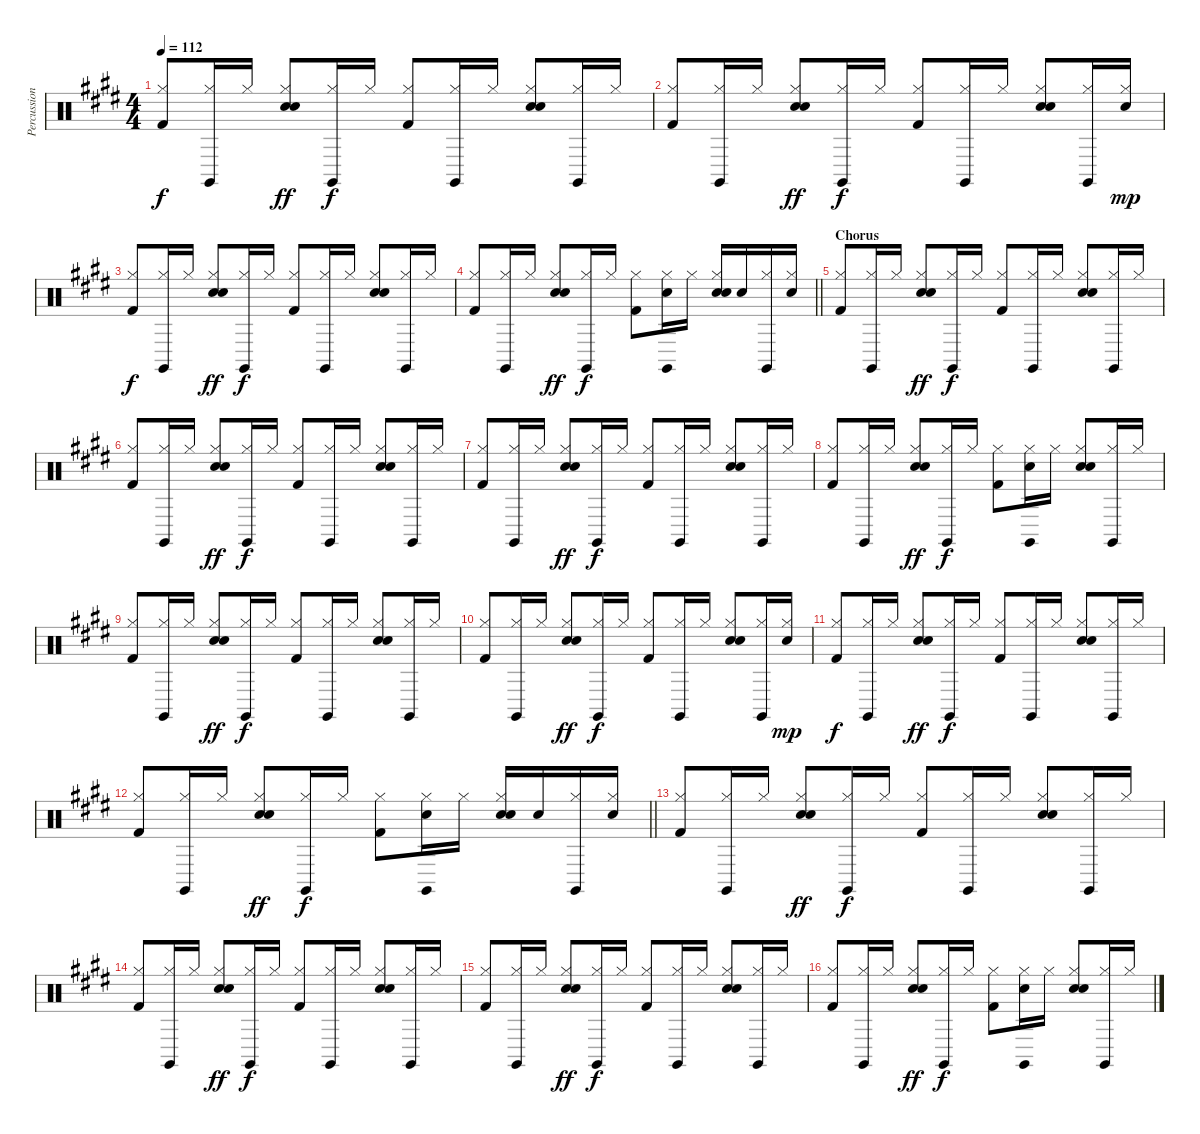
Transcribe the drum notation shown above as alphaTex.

\track ("Percussion" "Percussion") {instrument percussion}
\staff {score}
\articulation defaults
\ts (4 4)
\tempo 112
\clef neutral
\ks e
("Hi-Hat (closed)" "Kick (hit) 2").8{dy f} ("Claves (hit)" "Hi-Hat (closed)").16 "Hi-Hat (closed)".16 ("Hand Clap (hit)" "Hi-Hat (closed)" "Snare (hit) 2").8{dy ff} ("Claves (hit)" "Hi-Hat (closed)").16{dy f} "Hi-Hat (closed)".16 ("Hi-Hat (closed)" "Kick (hit) 2").8 ("Claves (hit)" "Hi-Hat (closed)").16 "Hi-Hat (closed)".16 ("Hand Clap (hit)" "Hi-Hat (closed)" "Snare (hit) 2").8 ("Claves (hit)" "Hi-Hat (closed)").16 "Hi-Hat (closed)".16 |
("Hi-Hat (closed)" "Kick (hit) 2").8 ("Claves (hit)" "Hi-Hat (closed)").16 "Hi-Hat (closed)".16 ("Hand Clap (hit)" "Hi-Hat (closed)" "Snare (hit) 2").8{dy ff} ("Claves (hit)" "Hi-Hat (closed)").16{dy f} "Hi-Hat (closed)".16 ("Hi-Hat (closed)" "Kick (hit) 2").8 ("Claves (hit)" "Hi-Hat (closed)").16 "Hi-Hat (closed)".16 ("Hand Clap (hit)" "Hi-Hat (closed)" "Snare (hit) 2").8 ("Claves (hit)" "Hi-Hat (closed)").16 ("Electric Snare (hit)" "Hi-Hat (closed)").16{dy mp} |
("Hi-Hat (closed)" "Kick (hit) 2").8{dy f} ("Claves (hit)" "Hi-Hat (closed)").16 "Hi-Hat (closed)".16 ("Hand Clap (hit)" "Hi-Hat (closed)" "Snare (hit) 2").8{dy ff} ("Claves (hit)" "Hi-Hat (closed)").16{dy f} "Hi-Hat (closed)".16 ("Hi-Hat (closed)" "Kick (hit) 2").8 ("Claves (hit)" "Hi-Hat (closed)").16 "Hi-Hat (closed)".16 ("Hand Clap (hit)" "Hi-Hat (closed)" "Snare (hit) 2").8 ("Claves (hit)" "Hi-Hat (closed)").16 "Hi-Hat (closed)".16 |
\barLineRight lightlight
("Hi-Hat (closed)" "Kick (hit) 2").8 ("Claves (hit)" "Hi-Hat (closed)").16 "Hi-Hat (closed)".16 ("Hand Clap (hit)" "Hi-Hat (closed)" "Snare (hit) 2").8{dy ff} ("Claves (hit)" "Hi-Hat (closed)").16{dy f} "Hi-Hat (closed)".16 ("Hi-Hat (closed)" "Kick (hit) 2").8 ("Claves (hit)" "Hi-Hat (closed)" "Snare (hit) 2").16 "Hi-Hat (closed)".16 ("Hand Clap (hit)" "Hi-Hat (closed)" "Snare (hit) 2").16 "Snare (hit) 2".16 ("Claves (hit)" "Hi-Hat (closed)").16 ("Hi-Hat (closed)" "Snare (hit) 2").16 |
\section ("" "Chorus")
("Hi-Hat (closed)" "Kick (hit) 2").8 ("Claves (hit)" "Hi-Hat (closed)").16 "Hi-Hat (closed)".16 ("Hand Clap (hit)" "Hi-Hat (closed)" "Snare (hit) 2").8{dy ff} ("Claves (hit)" "Hi-Hat (closed)").16{dy f} "Hi-Hat (closed)".16 ("Hi-Hat (closed)" "Kick (hit) 2").8 ("Claves (hit)" "Hi-Hat (closed)").16 "Hi-Hat (closed)".16 ("Hand Clap (hit)" "Hi-Hat (closed)" "Snare (hit) 2").8 ("Claves (hit)" "Hi-Hat (closed)").16 "Hi-Hat (closed)".16 |
("Hi-Hat (closed)" "Kick (hit) 2").8 ("Claves (hit)" "Hi-Hat (closed)").16 "Hi-Hat (closed)".16 ("Hand Clap (hit)" "Hi-Hat (closed)" "Snare (hit) 2").8{dy ff} ("Claves (hit)" "Hi-Hat (closed)").16{dy f} "Hi-Hat (closed)".16 ("Hi-Hat (closed)" "Kick (hit) 2").8 ("Claves (hit)" "Hi-Hat (closed)").16 "Hi-Hat (closed)".16 ("Hand Clap (hit)" "Hi-Hat (closed)" "Snare (hit) 2").8 ("Claves (hit)" "Hi-Hat (closed)").16 "Hi-Hat (closed)".16 |
("Hi-Hat (closed)" "Kick (hit) 2").8 ("Claves (hit)" "Hi-Hat (closed)").16 "Hi-Hat (closed)".16 ("Hand Clap (hit)" "Hi-Hat (closed)" "Snare (hit) 2").8{dy ff} ("Claves (hit)" "Hi-Hat (closed)").16{dy f} "Hi-Hat (closed)".16 ("Hi-Hat (closed)" "Kick (hit) 2").8 ("Claves (hit)" "Hi-Hat (closed)").16 "Hi-Hat (closed)".16 ("Hand Clap (hit)" "Hi-Hat (closed)" "Snare (hit) 2").8 ("Claves (hit)" "Hi-Hat (closed)").16 "Hi-Hat (closed)".16 |
("Hi-Hat (closed)" "Kick (hit) 2").8 ("Claves (hit)" "Hi-Hat (closed)").16 "Hi-Hat (closed)".16 ("Hand Clap (hit)" "Hi-Hat (closed)" "Snare (hit) 2").8{dy ff} ("Claves (hit)" "Hi-Hat (closed)").16{dy f} "Hi-Hat (closed)".16 ("Hi-Hat (closed)" "Kick (hit) 2").8 ("Claves (hit)" "Hand Clap (hit)" "Hi-Hat (closed)").16 "Hi-Hat (closed)".16 ("Hand Clap (hit)" "Hi-Hat (closed)" "Snare (hit) 2").8 ("Claves (hit)" "Hi-Hat (closed)").16 "Hi-Hat (closed)".16 |
("Hi-Hat (closed)" "Kick (hit) 2").8 ("Claves (hit)" "Hi-Hat (closed)").16 "Hi-Hat (closed)".16 ("Hand Clap (hit)" "Hi-Hat (closed)" "Snare (hit) 2").8{dy ff} ("Claves (hit)" "Hi-Hat (closed)").16{dy f} "Hi-Hat (closed)".16 ("Hi-Hat (closed)" "Kick (hit) 2").8 ("Claves (hit)" "Hi-Hat (closed)").16 "Hi-Hat (closed)".16 ("Hand Clap (hit)" "Hi-Hat (closed)" "Snare (hit) 2").8 ("Claves (hit)" "Hi-Hat (closed)").16 "Hi-Hat (closed)".16 |
("Hi-Hat (closed)" "Kick (hit) 2").8 ("Claves (hit)" "Hi-Hat (closed)").16 "Hi-Hat (closed)".16 ("Hand Clap (hit)" "Hi-Hat (closed)" "Snare (hit) 2").8{dy ff} ("Claves (hit)" "Hi-Hat (closed)").16{dy f} "Hi-Hat (closed)".16 ("Hi-Hat (closed)" "Kick (hit) 2").8 ("Claves (hit)" "Hi-Hat (closed)").16 "Hi-Hat (closed)".16 ("Hand Clap (hit)" "Hi-Hat (closed)" "Snare (hit) 2").8 ("Claves (hit)" "Hi-Hat (closed)").16 ("Electric Snare (hit)" "Hi-Hat (closed)").16{dy mp} |
("Hi-Hat (closed)" "Kick (hit) 2").8{dy f} ("Claves (hit)" "Hi-Hat (closed)").16 "Hi-Hat (closed)".16 ("Hand Clap (hit)" "Hi-Hat (closed)" "Snare (hit) 2").8{dy ff} ("Claves (hit)" "Hi-Hat (closed)").16{dy f} "Hi-Hat (closed)".16 ("Hi-Hat (closed)" "Kick (hit) 2").8 ("Claves (hit)" "Hi-Hat (closed)").16 "Hi-Hat (closed)".16 ("Hand Clap (hit)" "Hi-Hat (closed)" "Snare (hit) 2").8 ("Claves (hit)" "Hi-Hat (closed)").16 "Hi-Hat (closed)".16 |
\barLineRight lightlight
("Hi-Hat (closed)" "Kick (hit) 2").8 ("Claves (hit)" "Hi-Hat (closed)").16 "Hi-Hat (closed)".16 ("Hand Clap (hit)" "Hi-Hat (closed)" "Snare (hit) 2").8{dy ff} ("Claves (hit)" "Hi-Hat (closed)").16{dy f} "Hi-Hat (closed)".16 ("Hi-Hat (closed)" "Kick (hit) 2").8 ("Claves (hit)" "Hi-Hat (closed)" "Snare (hit) 2").16 "Hi-Hat (closed)".16 ("Hand Clap (hit)" "Hi-Hat (closed)" "Snare (hit) 2").16 "Snare (hit) 2".16 ("Claves (hit)" "Hi-Hat (closed)").16 ("Hi-Hat (closed)" "Snare (hit) 2").16 |
("Hi-Hat (closed)" "Kick (hit) 2").8 ("Claves (hit)" "Hi-Hat (closed)").16 "Hi-Hat (closed)".16 ("Hand Clap (hit)" "Hi-Hat (closed)" "Snare (hit) 2").8{dy ff} ("Claves (hit)" "Hi-Hat (closed)").16{dy f} "Hi-Hat (closed)".16 ("Hi-Hat (closed)" "Kick (hit) 2").8 ("Claves (hit)" "Hi-Hat (closed)").16 "Hi-Hat (closed)".16 ("Hand Clap (hit)" "Hi-Hat (closed)" "Snare (hit) 2").8 ("Claves (hit)" "Hi-Hat (closed)").16 "Hi-Hat (closed)".16 |
("Hi-Hat (closed)" "Kick (hit) 2").8 ("Claves (hit)" "Hi-Hat (closed)").16 "Hi-Hat (closed)".16 ("Hand Clap (hit)" "Hi-Hat (closed)" "Snare (hit) 2").8{dy ff} ("Claves (hit)" "Hi-Hat (closed)").16{dy f} "Hi-Hat (closed)".16 ("Hi-Hat (closed)" "Kick (hit) 2").8 ("Claves (hit)" "Hi-Hat (closed)").16 "Hi-Hat (closed)".16 ("Hand Clap (hit)" "Hi-Hat (closed)" "Snare (hit) 2").8 ("Claves (hit)" "Hi-Hat (closed)").16 "Hi-Hat (closed)".16 |
("Hi-Hat (closed)" "Kick (hit) 2").8 ("Claves (hit)" "Hi-Hat (closed)").16 "Hi-Hat (closed)".16 ("Hand Clap (hit)" "Hi-Hat (closed)" "Snare (hit) 2").8{dy ff} ("Claves (hit)" "Hi-Hat (closed)").16{dy f} "Hi-Hat (closed)".16 ("Hi-Hat (closed)" "Kick (hit) 2").8 ("Claves (hit)" "Hi-Hat (closed)").16 "Hi-Hat (closed)".16 ("Hand Clap (hit)" "Hi-Hat (closed)" "Snare (hit) 2").8 ("Claves (hit)" "Hi-Hat (closed)").16 "Hi-Hat (closed)".16 |
("Hi-Hat (closed)" "Kick (hit) 2").8 ("Claves (hit)" "Hi-Hat (closed)").16 "Hi-Hat (closed)".16 ("Hand Clap (hit)" "Hi-Hat (closed)" "Snare (hit) 2").8{dy ff} ("Claves (hit)" "Hi-Hat (closed)").16{dy f} "Hi-Hat (closed)".16 ("Hi-Hat (closed)" "Kick (hit) 2").8 ("Claves (hit)" "Hand Clap (hit)" "Hi-Hat (closed)").16 "Hi-Hat (closed)".16 ("Hand Clap (hit)" "Hi-Hat (closed)" "Snare (hit) 2").8 ("Claves (hit)" "Hi-Hat (closed)").16 "Hi-Hat (closed)".16
